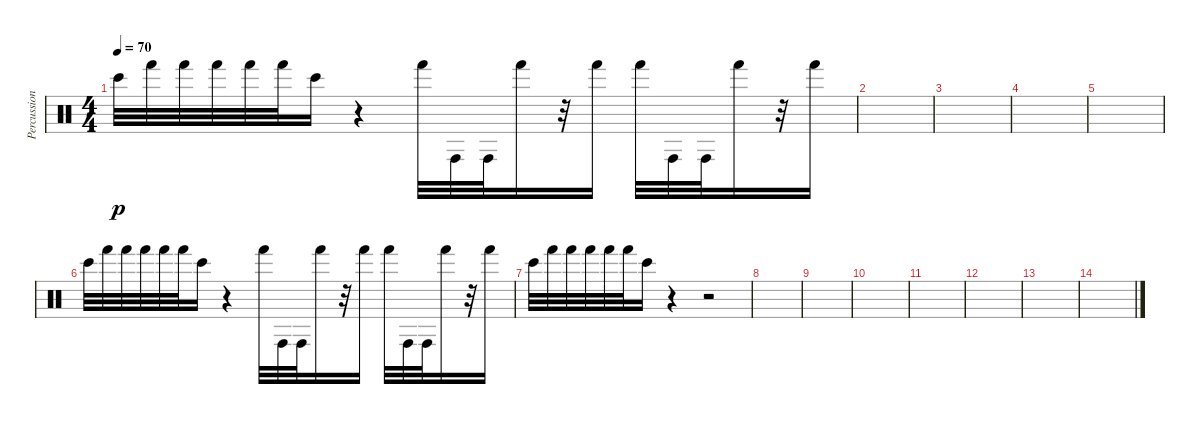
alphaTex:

\track ("Percussions" "Percussion") {instrument percussion}
\staff {score}
\articulation defaults
\ts (4 4)
\tempo 70
\clef neutral
\ks c "Bongo High (hit)".32{dy p balance 0} "Hand (hit)".32 "Hand (hit)".32 "Hand (hit)".32 "Hand (hit)".32 "Hand (hit)".32 "Bongo High (hit)".16
r.4 "Hand (hit)".32 "Conga high (hit)".32 "Conga high (hit)".32 "Hand (hit)".16 r.32 "Hand (hit)".16 "Hand (hit)".32 "Conga high (hit)".32 "Conga high (hit)".32 "Hand (hit)".16 r.32 "Hand (hit)".16 |
\section ("" "")
|
|
|
|
\section ("" "")
"Bongo High (hit)".32{balance 1} "Hand (hit)".32 "Hand (hit)".32 "Hand (hit)".32 "Hand (hit)".32 "Hand (hit)".32 "Bongo High (hit)".16 r.4 "Hand (hit)".32 "Conga high (hit)".32 "Conga high (hit)".32 "Hand (hit)".16 r.32 "Hand (hit)".16 "Hand (hit)".32 "Conga high (hit)".32 "Conga high (hit)".32 "Hand (hit)".16 r.32 "Hand (hit)".16 |
"Bongo High (hit)".32{balance 1} "Hand (hit)".32 "Hand (hit)".32 "Hand (hit)".32 "Hand (hit)".32 "Hand (hit)".32 "Bongo High (hit)".16 r.4 r.2 |
\section ("" "")
|
|
|
|
|
|
\section ("" "")
